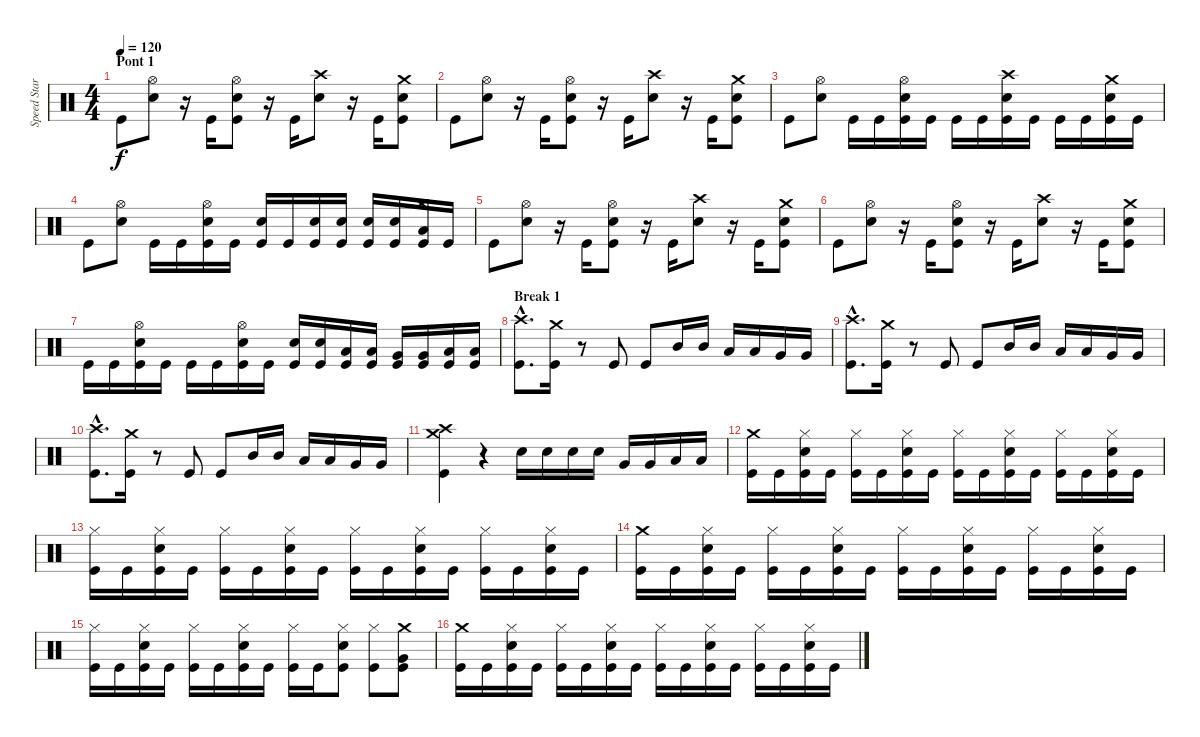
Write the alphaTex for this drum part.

\track ("Speed Star" "Speed Star") {instrument percussion}
\staff {score}
\articulation defaults
\ts (4 4)
\section ("" "Pont 1")
\tempo 120
\clef neutral
\ks c "Kick (hit)".8{dy f}
("Snare (hit) 2" "Hi-Hat (open)").8 r.16 "Kick (hit)".16 ("Kick (hit)" "Snare (hit) 2" "Hi-Hat (open)").8 r.16 "Kick (hit)".16 ("Snare (hit) 2" "Crash high (hit)").8 r.16 "Kick (hit)".16 ("Kick (hit)" "Snare (hit) 2" "Crash medium (hit)").8 |
"Kick (hit)".8 ("Snare (hit) 2" "Hi-Hat (open)").8 r.16 "Kick (hit)".16 ("Kick (hit)" "Snare (hit) 2" "Hi-Hat (open)").8 r.16 "Kick (hit)".16 ("Snare (hit) 2" "Crash high (hit)").8 r.16 "Kick (hit)".16 ("Kick (hit)" "Snare (hit) 2" "Crash medium (hit)").8 |
"Kick (hit)".8 ("Snare (hit) 2" "Hi-Hat (open)").8 "Kick (hit)".16 "Kick (hit)".16 ("Kick (hit)" "Snare (hit) 2" "Hi-Hat (open)").16 "Kick (hit)".16 "Kick (hit)".16 "Kick (hit)".16 ("Kick (hit)" "Snare (hit) 2" "Crash high (hit)").16 "Kick (hit)".16 "Kick (hit)".16 "Kick (hit)".16 ("Kick (hit)" "Snare (hit) 2" "Crash medium (hit)").16 "Kick (hit)".16 |
"Kick (hit)".8 ("Snare (hit) 2" "Hi-Hat (open)").8 "Kick (hit)".16 "Kick (hit)".16 ("Kick (hit)" "Snare (hit) 2" "Hi-Hat (open)").16 "Kick (hit)".16 ("Kick (hit)" "Snare (hit) 2").16 "Kick (hit)".16 ("Kick (hit)" "Snare (hit) 2").16 ("Kick (hit)" "Snare (hit) 2").16 ("Kick (hit)" "Snare (hit) 2").16 ("Kick (hit)" "Snare (hit) 2").16 ("Kick (hit)" "Low Floor Tom (hit)" "Crash medium (hit)").16 "Kick (hit)".16 |
"Kick (hit)".8 ("Snare (hit) 2" "Hi-Hat (open)").8 r.16 "Kick (hit)".16 ("Kick (hit)" "Snare (hit) 2" "Hi-Hat (open)").8 r.16 "Kick (hit)".16 ("Snare (hit) 2" "Crash high (hit)").8 r.16 "Kick (hit)".16 ("Kick (hit)" "Snare (hit) 2" "Crash medium (hit)").8 |
"Kick (hit)".8 ("Snare (hit) 2" "Hi-Hat (open)").8 r.16 "Kick (hit)".16 ("Kick (hit)" "Snare (hit) 2" "Hi-Hat (open)").8 r.16 "Kick (hit)".16 ("Snare (hit) 2" "Crash high (hit)").8 r.16 "Kick (hit)".16 ("Kick (hit)" "Snare (hit) 2" "Crash medium (hit)").8 |
"Kick (hit)".16 "Kick (hit)".16 ("Kick (hit)" "Snare (hit) 2" "Hi-Hat (open)").16 "Kick (hit)".16 "Kick (hit)".16 "Kick (hit)".16 ("Kick (hit)" "Snare (hit) 2" "Hi-Hat (open)").16 "Kick (hit)".16 ("Kick (hit)" "Snare (hit) 2").16 ("Kick (hit)" "Snare (hit) 2").16 ("Kick (hit)" "Low Floor Tom (hit)").16 ("Kick (hit)" "Low Floor Tom (hit)").16 ("Kick (hit)" "Very Low Tom (hit)").16 ("Kick (hit)" "Very Low Tom (hit)").16 ("Kick (hit)" "Low Floor Tom (hit)").16 ("Kick (hit)" "Low Floor Tom (hit)").16 |
\section ("" "Break 1")
("Kick (hit)"{hac} "Crash high (hit)"{hac}).8{d} ("Kick (hit)" "Crash medium (hit)").16 r.8 "Kick (hit)".8 "Kick (hit)".8 "Mid Tom (hit)".16 "Mid Tom (hit)".16 "Low Tom (hit)".16 "Low Tom (hit)".16 "Very Low Tom (hit)".16 "Very Low Tom (hit)".16 |
("Kick (hit)"{hac} "Crash high (hit)"{hac}).8{d} ("Kick (hit)" "Crash medium (hit)").16 r.8 "Kick (hit)".8 "Kick (hit)".8 "Mid Tom (hit)".16 "Mid Tom (hit)".16 "Low Tom (hit)".16 "Low Tom (hit)".16 "Very Low Tom (hit)".16 "Very Low Tom (hit)".16 |
("Kick (hit)"{hac} "Crash high (hit)"{hac}).8{d} ("Kick (hit)" "Crash medium (hit)").16 r.8 "Kick (hit)".8 "Kick (hit)".8 "Mid Tom (hit)".16 "Mid Tom (hit)".16 "Low Tom (hit)".16 "Low Tom (hit)".16 "Very Low Tom (hit)".16 "Very Low Tom (hit)".16 |
("Kick (hit)" "Crash high (hit)" "Crash medium (hit)").4 r.4 "Snare (hit) 2".16 "Snare (hit) 2".16 "Snare (hit) 2".16 "Snare (hit) 2".16 "Very Low Tom (hit)".16 "Very Low Tom (hit)".16 "Low Floor Tom (hit)".16 "Low Floor Tom (hit)".16 |
("Kick (hit)" "Crash medium (hit)").16 "Kick (hit)".16 ("Kick (hit)" "Snare (hit) 2" "Hi-Hat (closed)").16 "Kick (hit)".16 ("Kick (hit)" "Hi-Hat (closed)").16 "Kick (hit)".16 ("Kick (hit)" "Snare (hit) 2" "Hi-Hat (closed)").16 "Kick (hit)".16 ("Kick (hit)" "Hi-Hat (closed)").16 "Kick (hit)".16 ("Kick (hit)" "Snare (hit) 2" "Hi-Hat (closed)").16 "Kick (hit)".16 ("Kick (hit)" "Hi-Hat (closed)").16 "Kick (hit)".16 ("Kick (hit)" "Snare (hit) 2" "Hi-Hat (closed)").16 "Kick (hit)".16 |
("Kick (hit)" "Hi-Hat (closed)").16 "Kick (hit)".16 ("Kick (hit)" "Snare (hit) 2" "Hi-Hat (closed)").16 "Kick (hit)".16 ("Kick (hit)" "Hi-Hat (closed)").16 "Kick (hit)".16 ("Kick (hit)" "Snare (hit) 2" "Hi-Hat (closed)").16 "Kick (hit)".16 ("Kick (hit)" "Hi-Hat (closed)").16 "Kick (hit)".16 ("Kick (hit)" "Snare (hit) 2" "Hi-Hat (closed)").16 "Kick (hit)".16 ("Kick (hit)" "Hi-Hat (closed)").16 "Kick (hit)".16 ("Kick (hit)" "Snare (hit) 2" "Hi-Hat (closed)").16 "Kick (hit)".16 |
("Kick (hit)" "Crash medium (hit)").16 "Kick (hit)".16 ("Kick (hit)" "Snare (hit) 2" "Hi-Hat (closed)").16 "Kick (hit)".16 ("Kick (hit)" "Hi-Hat (closed)").16 "Kick (hit)".16 ("Kick (hit)" "Snare (hit) 2" "Hi-Hat (closed)").16 "Kick (hit)".16 ("Kick (hit)" "Hi-Hat (closed)").16 "Kick (hit)".16 ("Kick (hit)" "Snare (hit) 2" "Hi-Hat (closed)").16 "Kick (hit)".16 ("Kick (hit)" "Hi-Hat (closed)").16 "Kick (hit)".16 ("Kick (hit)" "Snare (hit) 2" "Hi-Hat (closed)").16 "Kick (hit)".16 |
("Kick (hit)" "Hi-Hat (closed)").16 "Kick (hit)".16 ("Kick (hit)" "Snare (hit) 2" "Hi-Hat (closed)").16 "Kick (hit)".16 ("Kick (hit)" "Hi-Hat (closed)").16 "Kick (hit)".16 ("Kick (hit)" "Snare (hit) 2" "Hi-Hat (closed)").16 "Kick (hit)".16 ("Kick (hit)" "Hi-Hat (closed)").16 "Kick (hit)".16 ("Kick (hit)" "Snare (hit) 2" "Hi-Hat (closed)").8 ("Kick (hit)" "Hi-Hat (closed)").8 ("Kick (hit)" "Very Low Tom (hit)" "Crash medium (hit)").8 |
("Kick (hit)" "Crash medium (hit)").16 "Kick (hit)".16 ("Kick (hit)" "Snare (hit) 2" "Hi-Hat (closed)").16 "Kick (hit)".16 ("Kick (hit)" "Hi-Hat (closed)").16 "Kick (hit)".16 ("Kick (hit)" "Snare (hit) 2" "Hi-Hat (closed)").16 "Kick (hit)".16 ("Kick (hit)" "Hi-Hat (closed)").16 "Kick (hit)".16 ("Kick (hit)" "Snare (hit) 2" "Hi-Hat (closed)").16 "Kick (hit)".16 ("Kick (hit)" "Hi-Hat (closed)").16 "Kick (hit)".16 ("Kick (hit)" "Snare (hit) 2" "Hi-Hat (closed)").16 "Kick (hit)".16
